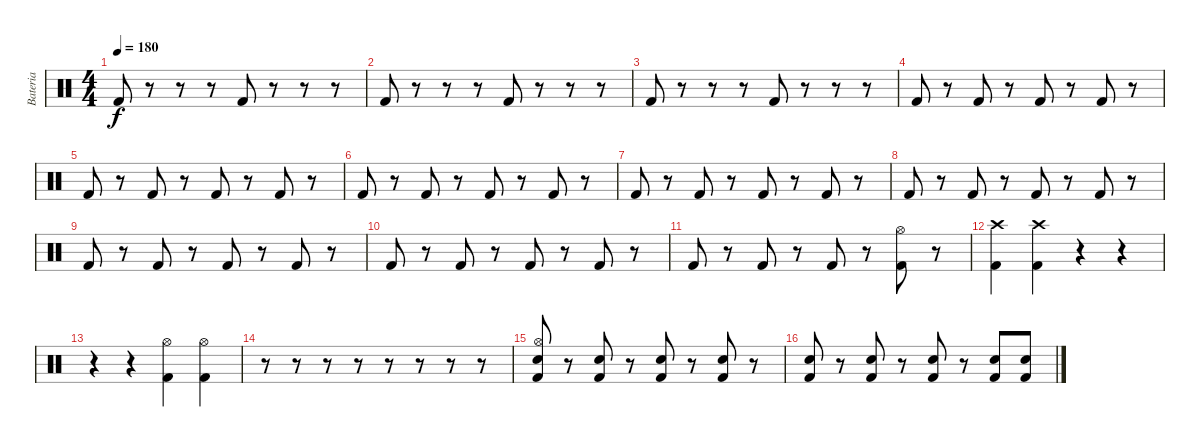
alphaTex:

\track ("Bateria" "Bateria") {instrument percussion}
\staff {score}
\articulation defaults
\ts (4 4)
\tempo 180
\clef neutral
\ks c "Kick (hit) 2".8{dy f}
r.8 r.8 r.8 "Kick (hit) 2".8 r.8 r.8 r.8 |
"Kick (hit) 2".8 r.8 r.8 r.8 "Kick (hit) 2".8 r.8 r.8 r.8 |
"Kick (hit) 2".8 r.8 r.8 r.8 "Kick (hit) 2".8 r.8 r.8 r.8 |
"Kick (hit) 2".8 r.8 "Kick (hit) 2".8 r.8 "Kick (hit) 2".8 r.8 "Kick (hit) 2".8 r.8 |
"Kick (hit) 2".8 r.8 "Kick (hit) 2".8 r.8 "Kick (hit) 2".8 r.8 "Kick (hit) 2".8 r.8 |
"Kick (hit) 2".8 r.8 "Kick (hit) 2".8 r.8 "Kick (hit) 2".8 r.8 "Kick (hit) 2".8 r.8 |
"Kick (hit) 2".8 r.8 "Kick (hit) 2".8 r.8 "Kick (hit) 2".8 r.8 "Kick (hit) 2".8 r.8 |
"Kick (hit) 2".8 r.8 "Kick (hit) 2".8 r.8 "Kick (hit) 2".8 r.8 "Kick (hit) 2".8 r.8 |
"Kick (hit) 2".8 r.8 "Kick (hit) 2".8 r.8 "Kick (hit) 2".8 r.8 "Kick (hit) 2".8 r.8 |
"Kick (hit) 2".8 r.8 "Kick (hit) 2".8 r.8 "Kick (hit) 2".8 r.8 "Kick (hit) 2".8 r.8 |
"Kick (hit) 2".8 r.8 "Kick (hit) 2".8 r.8 "Kick (hit) 2".8 r.8 ("Kick (hit) 2" "Hi-Hat (open)").8 r.8 |
("Kick (hit) 2" "Crash high (hit)").4 ("Kick (hit) 2" "Crash high (hit)").4 r.4 r.4 |
r.4 r.4 ("Kick (hit) 2" "Hi-Hat (open)").4 ("Kick (hit) 2" "Hi-Hat (open)").4 |
r.8 r.8 r.8 r.8 r.8 r.8 r.8 r.8 |
("Kick (hit) 2" "Electric Snare (hit)" "Hi-Hat (open)").8 r.8 ("Kick (hit) 2" "Electric Snare (hit)").8 r.8 ("Kick (hit) 2" "Electric Snare (hit)").8 r.8 ("Kick (hit) 2" "Electric Snare (hit)").8 r.8 |
("Kick (hit) 2" "Electric Snare (hit)").8 r.8 ("Kick (hit) 2" "Electric Snare (hit)").8 r.8 ("Kick (hit) 2" "Electric Snare (hit)").8 r.8 ("Kick (hit) 2" "Electric Snare (hit)").8 ("Kick (hit) 2" "Electric Snare (hit)").8
